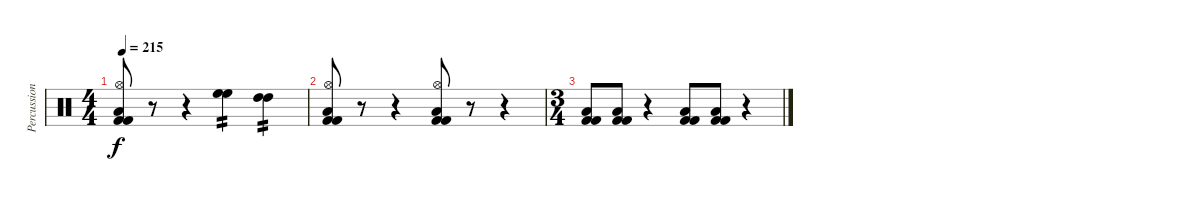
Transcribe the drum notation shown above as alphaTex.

\track ("Percussion" "Percussion") {instrument percussion}
\staff {score}
\articulation defaults
\ts (4 4)
\tempo 215
\clef neutral
\ks c
("Low Floor Tom (hit)" "Hi-Hat (open)" "Kick (hit) 2" "Kick (hit) 2").8{dy f} r.8 r.4 ("High Floor Tom (hit)" "High Floor Tom (hit)").4{tp 2} ("High Tom (hit)" "High Tom (hit)").4{tp 2} |
("Low Floor Tom (hit)" "Hi-Hat (open)" "Kick (hit) 2" "Kick (hit) 2").8 r.8 r.4 ("Low Floor Tom (hit)" "Hi-Hat (open)" "Kick (hit) 2" "Kick (hit) 2").8 r.8 r.4 |
\ts (3 4)
("Low Floor Tom (hit)" "Kick (hit) 2" "Kick (hit) 2").8 ("Low Floor Tom (hit)" "Kick (hit) 2" "Kick (hit) 2").8 r.4 ("Low Floor Tom (hit)" "Kick (hit) 2" "Kick (hit) 2").8 ("Low Floor Tom (hit)" "Kick (hit) 2" "Kick (hit) 2").8 r.4
